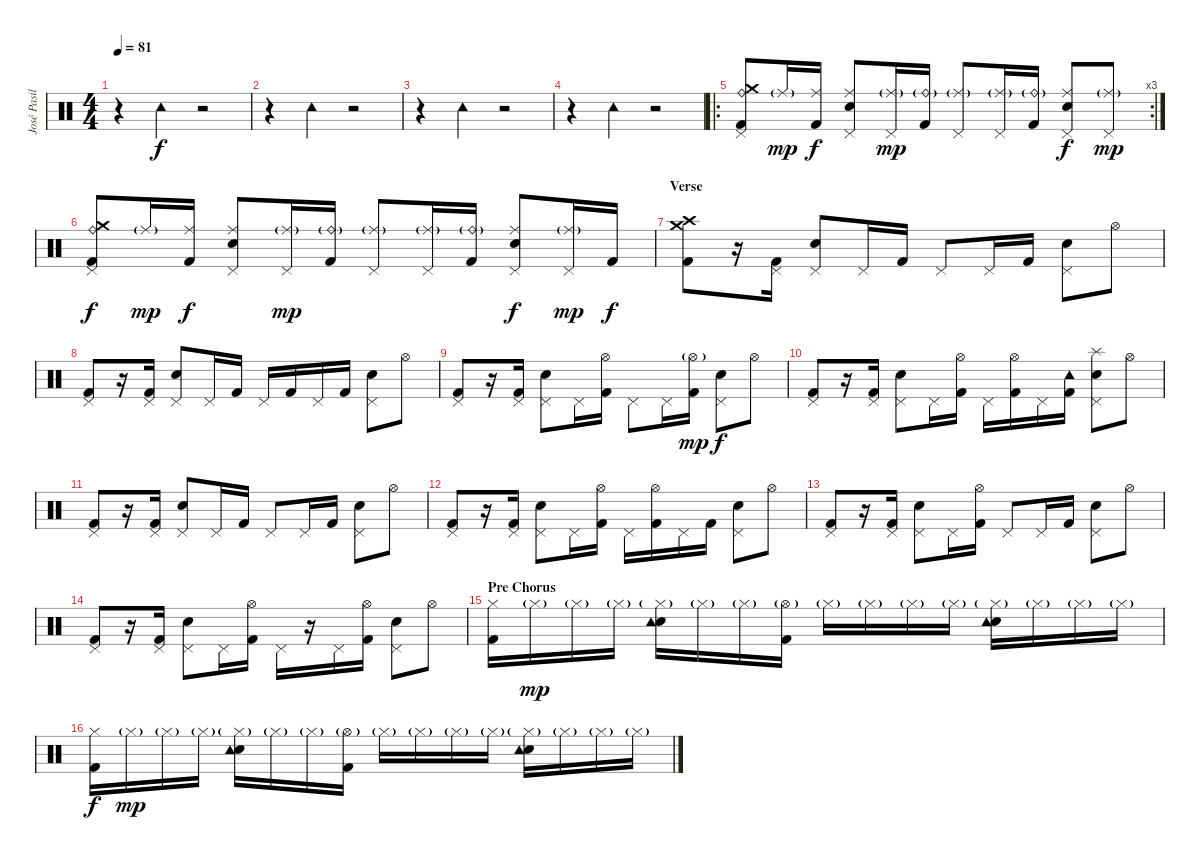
\track ("José Pasillas [Drums]" "José Pasil") {instrument percussion}
\staff {score}
\articulation defaults
\ts (4 4)
\tempo 81
\clef neutral
\ks c
r.4{dy f} "Tambourine (hit)".4 r.2 |
r.4 "Tambourine (hit)".4 r.2 |
r.4 "Tambourine (hit)".4 r.2 |
r.4 "Tambourine (hit)".4 r.2 |
\ro
\rc 3
("Kick (hit) 2" "Crash medium (hit)" "Ride (bell)" "Pedal Hi-Hat (hit)").8 "Ride (middle)"{g}.16{dy mp} ("Kick (hit) 2" "Ride (middle)").16{dy f} ("Electric Snare (hit)" "Ride (middle)" "Pedal Hi-Hat (hit)").8 ("Ride (middle)"{g} "Pedal Hi-Hat (hit)").16{dy mp} ("Kick (hit) 2" "Ride (bell)"{g}).16 ("Ride (middle)"{g} "Pedal Hi-Hat (hit)").8 ("Ride (middle)"{g} "Pedal Hi-Hat (hit)").16 ("Kick (hit) 2" "Ride (bell)"{g}).16 ("Electric Snare (hit)" "Ride (middle)" "Pedal Hi-Hat (hit)").8{dy f} ("Ride (middle)"{g} "Pedal Hi-Hat (hit)").8{dy mp} |
("Kick (hit) 2" "Crash medium (hit)" "Ride (bell)" "Pedal Hi-Hat (hit)").8{dy f} "Ride (middle)"{g}.16{dy mp} ("Kick (hit) 2" "Ride (middle)").16{dy f} ("Electric Snare (hit)" "Ride (middle)" "Pedal Hi-Hat (hit)").8 ("Ride (middle)"{g} "Pedal Hi-Hat (hit)").16{dy mp} ("Kick (hit) 2" "Ride (bell)"{g}).16 ("Ride (middle)"{g} "Pedal Hi-Hat (hit)").8 ("Ride (middle)"{g} "Pedal Hi-Hat (hit)").16 ("Kick (hit) 2" "Ride (bell)"{g}).16 ("Electric Snare (hit)" "Ride (middle)" "Pedal Hi-Hat (hit)").8{dy f} ("Ride (middle)"{g} "Pedal Hi-Hat (hit)").16{dy mp} "Kick (hit) 2".16{dy f} |
\section ("" "Verse")
("Kick (hit) 2" "Crash high (hit)" "Crash medium (hit)").8 r.16 ("Kick (hit) 2" "Pedal Hi-Hat (hit)").16 ("Electric Snare (hit)" "Pedal Hi-Hat (hit)").8 "Pedal Hi-Hat (hit)".16 "Kick (hit) 2".16 "Pedal Hi-Hat (hit)".8 "Pedal Hi-Hat (hit)".16 "Kick (hit) 2".16 ("Electric Snare (hit)" "Pedal Hi-Hat (hit)").8 "Hi-Hat (open)".8 |
("Kick (hit) 2" "Pedal Hi-Hat (hit)").8 r.16 ("Kick (hit) 2" "Pedal Hi-Hat (hit)").16 ("Electric Snare (hit)" "Pedal Hi-Hat (hit)").8 "Pedal Hi-Hat (hit)".16 "Kick (hit) 2".16 "Pedal Hi-Hat (hit)".16 "Kick (hit) 2".16 "Pedal Hi-Hat (hit)".16 "Kick (hit) 2".16 ("Electric Snare (hit)" "Pedal Hi-Hat (hit)").8 "Hi-Hat (open)".8 |
("Kick (hit) 2" "Pedal Hi-Hat (hit)").8 r.16 ("Kick (hit) 2" "Pedal Hi-Hat (hit)").16 ("Electric Snare (hit)" "Pedal Hi-Hat (hit)").8 "Pedal Hi-Hat (hit)".16 ("Kick (hit) 2" "Hi-Hat (open)").16 "Pedal Hi-Hat (hit)".8 "Pedal Hi-Hat (hit)".16 ("Kick (hit) 2" "Hi-Hat (open)"{g}).16{dy mp} ("Electric Snare (hit)" "Pedal Hi-Hat (hit)").8{dy f} "Hi-Hat (open)".8 |
("Kick (hit) 2" "Pedal Hi-Hat (hit)").8 r.16 ("Kick (hit) 2" "Pedal Hi-Hat (hit)").16 ("Electric Snare (hit)" "Pedal Hi-Hat (hit)").8 "Pedal Hi-Hat (hit)".16 ("Kick (hit) 2" "Hi-Hat (open)").16 "Pedal Hi-Hat (hit)".16 ("Kick (hit) 2" "Hi-Hat (open)").16 "Pedal Hi-Hat (hit)".16 ("Kick (hit) 2" "Tambourine (hit)").16 ("Electric Snare (hit)" "Splash (hit)" "Pedal Hi-Hat (hit)").8 "Hi-Hat (open)".8 |
("Kick (hit) 2" "Pedal Hi-Hat (hit)").8 r.16 ("Kick (hit) 2" "Pedal Hi-Hat (hit)").16 ("Electric Snare (hit)" "Pedal Hi-Hat (hit)").8 "Pedal Hi-Hat (hit)".16 "Kick (hit) 2".16 "Pedal Hi-Hat (hit)".8 "Pedal Hi-Hat (hit)".16 "Kick (hit) 2".16 ("Electric Snare (hit)" "Pedal Hi-Hat (hit)").8 "Hi-Hat (open)".8 |
("Kick (hit) 2" "Pedal Hi-Hat (hit)").8 r.16 ("Kick (hit) 2" "Pedal Hi-Hat (hit)").16 ("Electric Snare (hit)" "Pedal Hi-Hat (hit)").8 "Pedal Hi-Hat (hit)".16 ("Kick (hit) 2" "Hi-Hat (open)").16 "Pedal Hi-Hat (hit)".16 ("Kick (hit) 2" "Hi-Hat (open)").16 "Pedal Hi-Hat (hit)".16 "Kick (hit) 2".16 ("Electric Snare (hit)" "Pedal Hi-Hat (hit)").8 "Hi-Hat (open)".8 |
("Kick (hit) 2" "Pedal Hi-Hat (hit)").8 r.16 ("Kick (hit) 2" "Pedal Hi-Hat (hit)").16 ("Electric Snare (hit)" "Pedal Hi-Hat (hit)").8 "Pedal Hi-Hat (hit)".16 ("Kick (hit) 2" "Hi-Hat (open)").16 "Pedal Hi-Hat (hit)".8 "Pedal Hi-Hat (hit)".16 "Kick (hit) 2".16 ("Electric Snare (hit)" "Pedal Hi-Hat (hit)").8 "Hi-Hat (open)".8 |
("Kick (hit) 2" "Pedal Hi-Hat (hit)").8 r.16 ("Kick (hit) 2" "Pedal Hi-Hat (hit)").16 ("Electric Snare (hit)" "Pedal Hi-Hat (hit)").8 "Pedal Hi-Hat (hit)".16 ("Kick (hit) 2" "Hi-Hat (open)").16 "Pedal Hi-Hat (hit)".16 r.16 "Pedal Hi-Hat (hit)".16 ("Kick (hit) 2" "Hi-Hat (open)").16 ("Electric Snare (hit)" "Pedal Hi-Hat (hit)").8 "Hi-Hat (open)".8 |
\section ("" "Pre Chorus")
("Kick (hit) 2" "Hi-Hat (closed)").16 "Hi-Hat (closed)"{g}.16{dy mp} "Hi-Hat (closed)"{g}.16 "Hi-Hat (closed)"{g}.16 ("Electric Snare (hit)" "Tambourine (hit)" "Hi-Hat (closed)"{g}).16 "Hi-Hat (closed)"{g}.16 "Hi-Hat (closed)"{g}.16 ("Kick (hit) 2" "Hi-Hat (open)"{g}).16 "Hi-Hat (closed)"{g}.16 "Hi-Hat (closed)"{g}.16 "Hi-Hat (closed)"{g}.16 "Hi-Hat (closed)"{g}.16 ("Electric Snare (hit)" "Tambourine (hit)" "Hi-Hat (closed)"{g}).16 "Hi-Hat (closed)"{g}.16 "Hi-Hat (closed)"{g}.16 "Hi-Hat (closed)"{g}.16 |
("Kick (hit) 2" "Hi-Hat (closed)").16{dy f} "Hi-Hat (closed)"{g}.16{dy mp} "Hi-Hat (closed)"{g}.16 "Hi-Hat (closed)"{g}.16 ("Electric Snare (hit)" "Tambourine (hit)" "Hi-Hat (closed)"{g}).16 "Hi-Hat (closed)"{g}.16 "Hi-Hat (closed)"{g}.16 ("Kick (hit) 2" "Hi-Hat (open)"{g}).16 "Hi-Hat (closed)"{g}.16 "Hi-Hat (closed)"{g}.16 "Hi-Hat (closed)"{g}.16 "Hi-Hat (closed)"{g}.16 ("Electric Snare (hit)" "Tambourine (hit)" "Hi-Hat (closed)"{g}).16 "Hi-Hat (closed)"{g}.16 "Hi-Hat (closed)"{g}.16 "Hi-Hat (closed)"{g}.16
